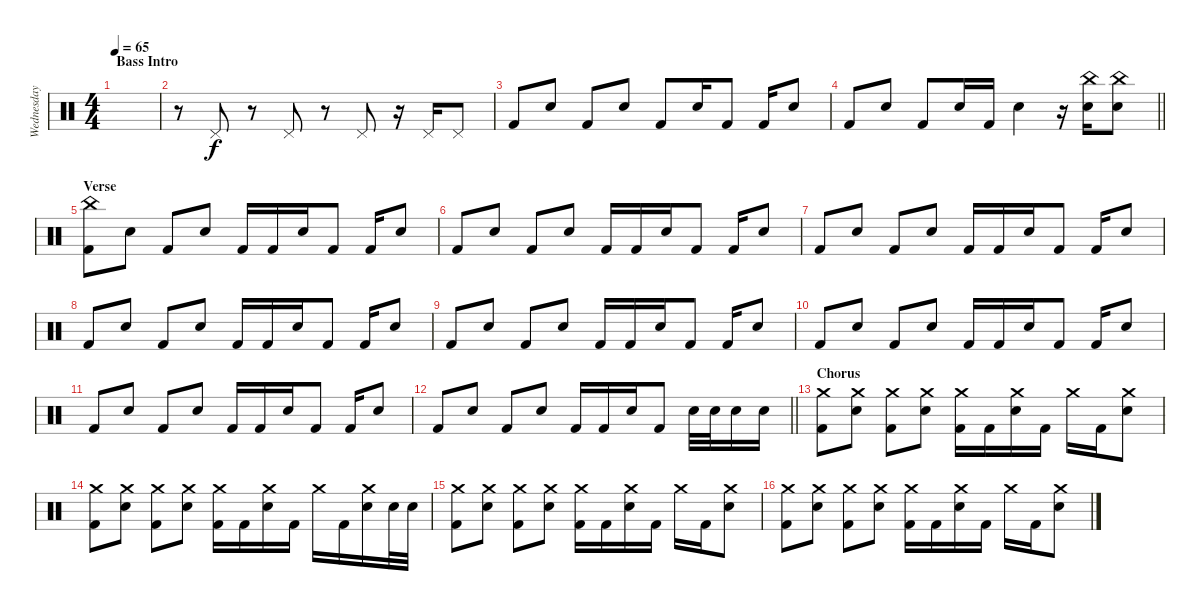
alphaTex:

\track ("Wednesday 13 - Drums" "Wednesday ") {instrument percussion}
\staff {score}
\articulation defaults
\ts (4 4)
\section ("" "Bass Intro")
\tempo 65
\tempo 60
\tempo 65
\clef neutral
\ks c
|
r.8 "Pedal Hi-Hat (hit)".8 r.8 "Pedal Hi-Hat (hit)".8 r.8 "Pedal Hi-Hat (hit)".8 r.16 "Pedal Hi-Hat (hit)".16 "Pedal Hi-Hat (hit)".8 |
"Kick (hit) 2".8 "Electric Snare (hit)".8 "Kick (hit) 2".8 "Electric Snare (hit)".8 "Kick (hit) 2".8 "Electric Snare (hit)".16 "Kick (hit) 2".8 "Kick (hit) 2".16 "Electric Snare (hit)".8 |
\barLineRight lightlight "Kick (hit) 2".8 "Electric Snare (hit)".8 "Kick (hit) 2".8 "Electric Snare (hit)".16 "Kick (hit) 2".16 "Electric Snare (hit)".4
r.16 ("China (hit)" "Electric Snare (hit)").16 ("China (hit)" "Electric Snare (hit)").8 |
\section ("" "Verse")
("China (hit)" "Kick (hit) 2").8 "Electric Snare (hit)".8 "Kick (hit) 2".8 "Electric Snare (hit)".8 "Kick (hit) 2".16 "Kick (hit) 2".16 "Electric Snare (hit)".16 "Kick (hit) 2".8 "Kick (hit) 2".16 "Electric Snare (hit)".8 |
"Kick (hit) 2".8 "Electric Snare (hit)".8 "Kick (hit) 2".8 "Electric Snare (hit)".8 "Kick (hit) 2".16 "Kick (hit) 2".16 "Electric Snare (hit)".16 "Kick (hit) 2".8 "Kick (hit) 2".16 "Electric Snare (hit)".8 |
"Kick (hit) 2".8 "Electric Snare (hit)".8 "Kick (hit) 2".8 "Electric Snare (hit)".8 "Kick (hit) 2".16 "Kick (hit) 2".16 "Electric Snare (hit)".16 "Kick (hit) 2".8 "Kick (hit) 2".16 "Electric Snare (hit)".8 |
"Kick (hit) 2".8 "Electric Snare (hit)".8 "Kick (hit) 2".8 "Electric Snare (hit)".8 "Kick (hit) 2".16 "Kick (hit) 2".16 "Electric Snare (hit)".16 "Kick (hit) 2".8 "Kick (hit) 2".16 "Electric Snare (hit)".8 |
"Kick (hit) 2".8 "Electric Snare (hit)".8 "Kick (hit) 2".8 "Electric Snare (hit)".8 "Kick (hit) 2".16 "Kick (hit) 2".16 "Electric Snare (hit)".16 "Kick (hit) 2".8 "Kick (hit) 2".16 "Electric Snare (hit)".8 |
"Kick (hit) 2".8 "Electric Snare (hit)".8 "Kick (hit) 2".8 "Electric Snare (hit)".8 "Kick (hit) 2".16 "Kick (hit) 2".16 "Electric Snare (hit)".16 "Kick (hit) 2".8 "Kick (hit) 2".16 "Electric Snare (hit)".8 |
"Kick (hit) 2".8 "Electric Snare (hit)".8 "Kick (hit) 2".8 "Electric Snare (hit)".8 "Kick (hit) 2".16 "Kick (hit) 2".16 "Electric Snare (hit)".16 "Kick (hit) 2".8 "Kick (hit) 2".16 "Electric Snare (hit)".8 |
\barLineRight lightlight "Kick (hit) 2".8 "Electric Snare (hit)".8 "Kick (hit) 2".8 "Electric Snare (hit)".8 "Kick (hit) 2".16 "Kick (hit) 2".16 "Electric Snare (hit)".16 "Kick (hit) 2".8 "Electric Snare (hit)".32 "Electric Snare (hit)".32 "Electric Snare (hit)".16 "Electric Snare (hit)".16
|
\section ("" "Chorus")
("Crash medium (hit)" "Kick (hit) 2").8 ("Crash medium (hit)" "Electric Snare (hit)").8 ("Crash medium (hit)" "Kick (hit) 2").8 ("Crash medium (hit)" "Electric Snare (hit)").8 ("Crash medium (hit)" "Kick (hit) 2").16 "Kick (hit) 2".16 ("Crash medium (hit)" "Electric Snare (hit)").16 "Kick (hit) 2".16 "Crash medium (hit)".16 "Kick (hit) 2".16 ("Crash medium (hit)" "Electric Snare (hit)").8 |
("Crash medium (hit)" "Kick (hit) 2").8 ("Crash medium (hit)" "Electric Snare (hit)").8 ("Crash medium (hit)" "Kick (hit) 2").8 ("Crash medium (hit)" "Electric Snare (hit)").8 ("Crash medium (hit)" "Kick (hit) 2").16 "Kick (hit) 2".16 ("Crash medium (hit)" "Electric Snare (hit)").16 "Kick (hit) 2".16 "Crash medium (hit)".16 "Kick (hit) 2".16 ("Crash medium (hit)" "Electric Snare (hit)").16 "Electric Snare (hit)".32 "Electric Snare (hit)".32 |
("Crash medium (hit)" "Kick (hit) 2").8 ("Crash medium (hit)" "Electric Snare (hit)").8 ("Crash medium (hit)" "Kick (hit) 2").8 ("Crash medium (hit)" "Electric Snare (hit)").8 ("Crash medium (hit)" "Kick (hit) 2").16 "Kick (hit) 2".16 ("Crash medium (hit)" "Electric Snare (hit)").16 "Kick (hit) 2".16 "Crash medium (hit)".16 "Kick (hit) 2".16 ("Crash medium (hit)" "Electric Snare (hit)").8 |
("Crash medium (hit)" "Kick (hit) 2").8 ("Crash medium (hit)" "Electric Snare (hit)").8 ("Crash medium (hit)" "Kick (hit) 2").8 ("Crash medium (hit)" "Electric Snare (hit)").8 ("Crash medium (hit)" "Kick (hit) 2").16 "Kick (hit) 2".16 ("Crash medium (hit)" "Electric Snare (hit)").16 "Kick (hit) 2".16 "Crash medium (hit)".16 "Kick (hit) 2".16 ("Crash medium (hit)" "Electric Snare (hit)").8
